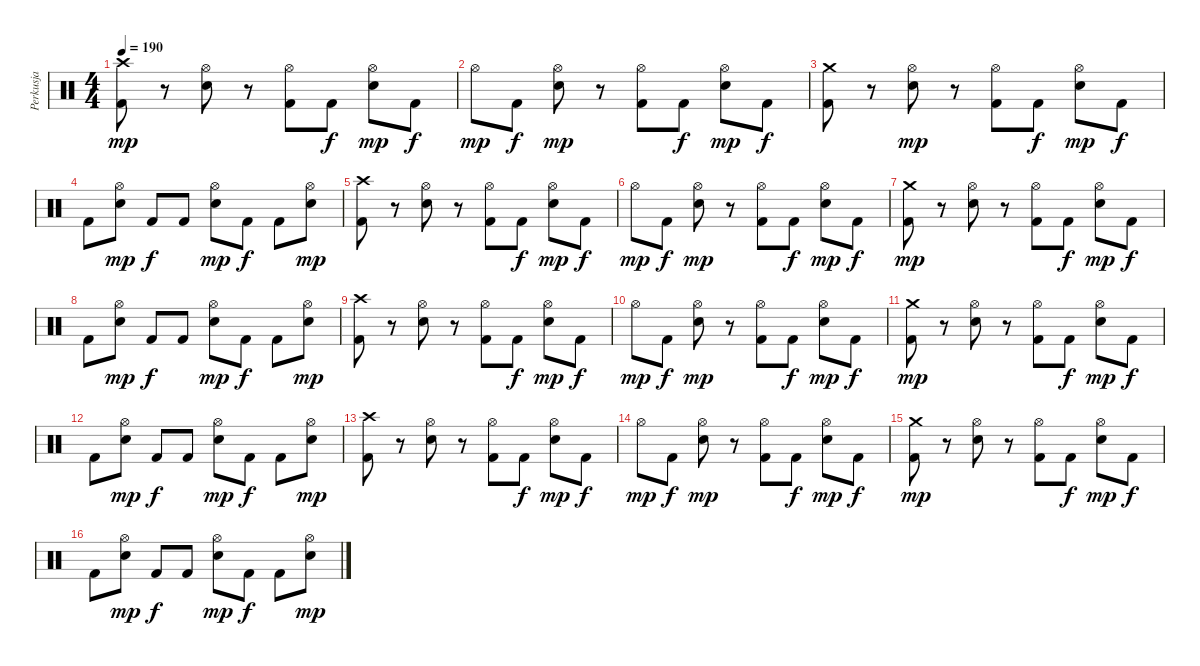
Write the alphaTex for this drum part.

\track ("Perkusja" "Perkusja") {instrument percussion}
\staff {score}
\articulation defaults
\ts (4 4)
\tempo 190
\clef neutral
\ks c
("Crash high (hit)" "Kick (hit) 2").8{dy mp} r.8 ("Hi-Hat (open)" "Snare (hit) 2").8 r.8 ("Hi-Hat (open)" "Kick (hit) 2").8 "Kick (hit) 2".8{dy f} ("Hi-Hat (open)" "Snare (hit) 2").8{dy mp} "Kick (hit) 2".8{dy f} |
"Hi-Hat (open)".8{dy mp} "Kick (hit) 2".8{dy f} ("Hi-Hat (open)" "Snare (hit) 2").8{dy mp} r.8 ("Hi-Hat (open)" "Kick (hit) 2").8 "Kick (hit) 2".8{dy f} ("Hi-Hat (open)" "Snare (hit) 2").8{dy mp} "Kick (hit) 2".8{dy f} |
("Crash medium (hit)" "Kick (hit) 2").8 r.8 ("Hi-Hat (open)" "Snare (hit) 2").8{dy mp} r.8 ("Hi-Hat (open)" "Kick (hit) 2").8 "Kick (hit) 2".8{dy f} ("Hi-Hat (open)" "Snare (hit) 2").8{dy mp} "Kick (hit) 2".8{dy f} |
"Kick (hit) 2".8 ("Hi-Hat (open)" "Snare (hit) 2").8{dy mp} "Kick (hit) 2".8{dy f} "Kick (hit) 2".8 ("Hi-Hat (open)" "Snare (hit) 2").8{dy mp} "Kick (hit) 2".8{dy f} "Kick (hit) 2".8 ("Hi-Hat (open)" "Snare (hit) 2").8{dy mp} |
("Crash high (hit)" "Kick (hit) 2").8 r.8 ("Hi-Hat (open)" "Snare (hit) 2").8 r.8 ("Hi-Hat (open)" "Kick (hit) 2").8 "Kick (hit) 2".8{dy f} ("Hi-Hat (open)" "Snare (hit) 2").8{dy mp} "Kick (hit) 2".8{dy f} |
"Hi-Hat (open)".8{dy mp} "Kick (hit) 2".8{dy f} ("Hi-Hat (open)" "Snare (hit) 2").8{dy mp} r.8 ("Hi-Hat (open)" "Kick (hit) 2").8 "Kick (hit) 2".8{dy f} ("Hi-Hat (open)" "Snare (hit) 2").8{dy mp} "Kick (hit) 2".8{dy f} |
("Crash medium (hit)" "Kick (hit) 2").8{dy mp} r.8 ("Hi-Hat (open)" "Snare (hit) 2").8 r.8 ("Hi-Hat (open)" "Kick (hit) 2").8 "Kick (hit) 2".8{dy f} ("Hi-Hat (open)" "Snare (hit) 2").8{dy mp} "Kick (hit) 2".8{dy f} |
"Kick (hit) 2".8 ("Hi-Hat (open)" "Snare (hit) 2").8{dy mp} "Kick (hit) 2".8{dy f} "Kick (hit) 2".8 ("Hi-Hat (open)" "Snare (hit) 2").8{dy mp} "Kick (hit) 2".8{dy f} "Kick (hit) 2".8 ("Hi-Hat (open)" "Snare (hit) 2").8{dy mp} |
("Crash high (hit)" "Kick (hit) 2").8 r.8 ("Hi-Hat (open)" "Snare (hit) 2").8 r.8 ("Hi-Hat (open)" "Kick (hit) 2").8 "Kick (hit) 2".8{dy f} ("Hi-Hat (open)" "Snare (hit) 2").8{dy mp} "Kick (hit) 2".8{dy f} |
"Hi-Hat (open)".8{dy mp} "Kick (hit) 2".8{dy f} ("Hi-Hat (open)" "Snare (hit) 2").8{dy mp} r.8 ("Hi-Hat (open)" "Kick (hit) 2").8 "Kick (hit) 2".8{dy f} ("Hi-Hat (open)" "Snare (hit) 2").8{dy mp} "Kick (hit) 2".8{dy f} |
("Crash medium (hit)" "Kick (hit) 2").8{dy mp} r.8 ("Hi-Hat (open)" "Snare (hit) 2").8 r.8 ("Hi-Hat (open)" "Kick (hit) 2").8 "Kick (hit) 2".8{dy f} ("Hi-Hat (open)" "Snare (hit) 2").8{dy mp} "Kick (hit) 2".8{dy f} |
"Kick (hit) 2".8 ("Hi-Hat (open)" "Snare (hit) 2").8{dy mp} "Kick (hit) 2".8{dy f} "Kick (hit) 2".8 ("Hi-Hat (open)" "Snare (hit) 2").8{dy mp} "Kick (hit) 2".8{dy f} "Kick (hit) 2".8 ("Hi-Hat (open)" "Snare (hit) 2").8{dy mp} |
("Crash high (hit)" "Kick (hit) 2").8 r.8 ("Hi-Hat (open)" "Snare (hit) 2").8 r.8 ("Hi-Hat (open)" "Kick (hit) 2").8 "Kick (hit) 2".8{dy f} ("Hi-Hat (open)" "Snare (hit) 2").8{dy mp} "Kick (hit) 2".8{dy f} |
"Hi-Hat (open)".8{dy mp} "Kick (hit) 2".8{dy f} ("Hi-Hat (open)" "Snare (hit) 2").8{dy mp} r.8 ("Hi-Hat (open)" "Kick (hit) 2").8 "Kick (hit) 2".8{dy f} ("Hi-Hat (open)" "Snare (hit) 2").8{dy mp} "Kick (hit) 2".8{dy f} |
("Crash medium (hit)" "Kick (hit) 2").8{dy mp} r.8 ("Hi-Hat (open)" "Snare (hit) 2").8 r.8 ("Hi-Hat (open)" "Kick (hit) 2").8 "Kick (hit) 2".8{dy f} ("Hi-Hat (open)" "Snare (hit) 2").8{dy mp} "Kick (hit) 2".8{dy f} |
"Kick (hit) 2".8 ("Hi-Hat (open)" "Snare (hit) 2").8{dy mp} "Kick (hit) 2".8{dy f} "Kick (hit) 2".8 ("Hi-Hat (open)" "Snare (hit) 2").8{dy mp} "Kick (hit) 2".8{dy f} "Kick (hit) 2".8 ("Hi-Hat (open)" "Snare (hit) 2").8{dy mp}
